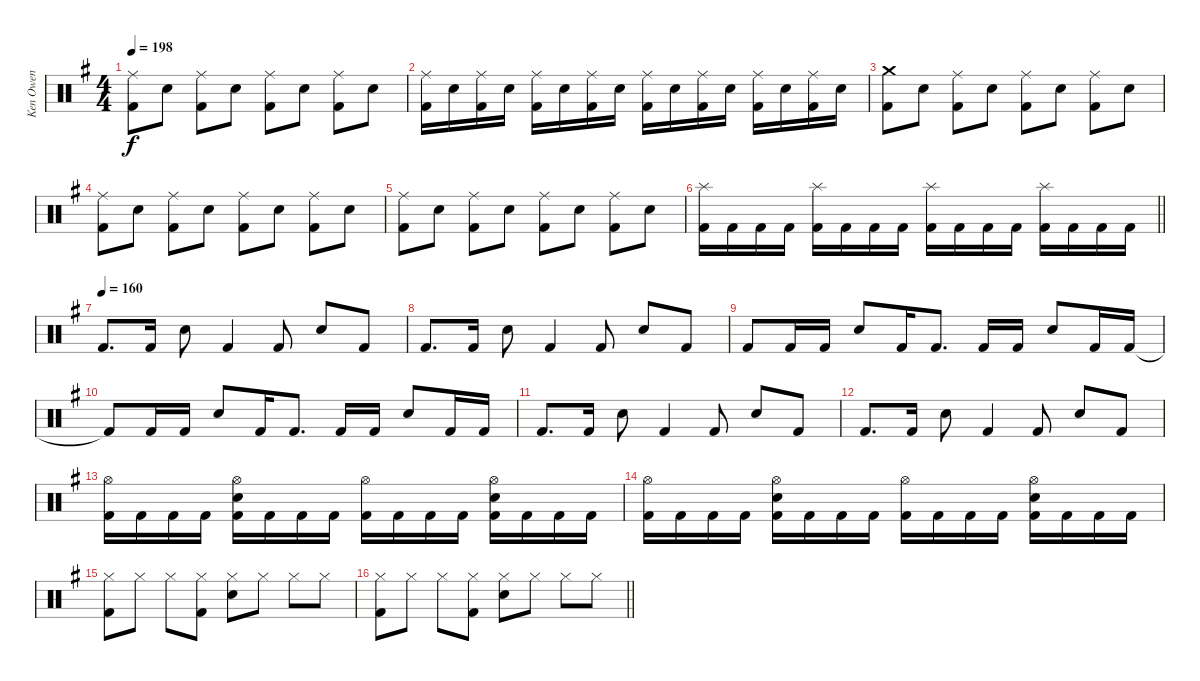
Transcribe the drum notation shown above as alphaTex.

\track ("Ken Owen" "Ken Owen") {instrument percussion}
\staff {score}
\articulation defaults
\ts (4 4)
\tempo 198
\clef neutral
\ks g
("Ride (middle)" "Kick (hit) 2").8{dy f} "Snare (hit) 2".8 ("Ride (middle)" "Kick (hit) 2").8 "Snare (hit) 2".8 ("Ride (middle)" "Kick (hit) 2").8 "Snare (hit) 2".8 ("Ride (middle)" "Kick (hit) 2").8 "Snare (hit) 2".8 |
("Ride (middle)" "Kick (hit) 2").16 "Snare (hit) 2".16 ("Ride (middle)" "Kick (hit) 2").16 "Snare (hit) 2".16 ("Ride (middle)" "Kick (hit) 2").16 "Snare (hit) 2".16 ("Ride (middle)" "Kick (hit) 2").16 "Snare (hit) 2".16 ("Ride (middle)" "Kick (hit) 2").16 "Snare (hit) 2".16 ("Ride (middle)" "Kick (hit) 2").16 "Snare (hit) 2".16 ("Ride (middle)" "Kick (hit) 2").16 "Snare (hit) 2".16 ("Ride (middle)" "Kick (hit) 2").16 "Snare (hit) 2".16 |
("Crash medium (hit)" "Kick (hit) 2").8 "Snare (hit) 2".8 ("Ride (middle)" "Kick (hit) 2").8 "Snare (hit) 2".8 ("Ride (middle)" "Kick (hit) 2").8 "Snare (hit) 2".8 ("Ride (middle)" "Kick (hit) 2").8 "Snare (hit) 2".8 |
("Ride (middle)" "Kick (hit) 2").8 "Snare (hit) 2".8 ("Ride (middle)" "Kick (hit) 2").8 "Snare (hit) 2".8 ("Ride (middle)" "Kick (hit) 2").8 "Snare (hit) 2".8 ("Ride (middle)" "Kick (hit) 2").8 "Snare (hit) 2".8 |
("Ride (middle)" "Kick (hit) 2").8 "Snare (hit) 2".8 ("Ride (middle)" "Kick (hit) 2").8 "Snare (hit) 2".8 ("Ride (middle)" "Kick (hit) 2").8 "Snare (hit) 2".8 ("Ride (middle)" "Kick (hit) 2").8 "Snare (hit) 2".8 |
\barLineRight lightlight
("Splash (hit)" "Kick (hit) 2").16 "Kick (hit) 2".16 "Kick (hit) 2".16 "Kick (hit) 2".16 ("Splash (hit)" "Kick (hit) 2").16 "Kick (hit) 2".16 "Kick (hit) 2".16 "Kick (hit) 2".16 ("Splash (hit)" "Kick (hit) 2").16 "Kick (hit) 2".16 "Kick (hit) 2".16 "Kick (hit) 2".16 ("Splash (hit)" "Kick (hit) 2").16 "Kick (hit) 2".16 "Kick (hit) 2".16 "Kick (hit) 2".16 |
\tempo (160)
"Kick (hit) 2".8{d} "Kick (hit) 2".16 "Snare (hit) 2".8 "Kick (hit) 2".4 "Kick (hit) 2".8 "Snare (hit) 2".8 "Kick (hit) 2".8 |
"Kick (hit) 2".8{d} "Kick (hit) 2".16 "Snare (hit) 2".8 "Kick (hit) 2".4 "Kick (hit) 2".8 "Snare (hit) 2".8 "Kick (hit) 2".8 |
"Kick (hit) 2".8 "Kick (hit) 2".16 "Kick (hit) 2".16 "Snare (hit) 2".8 "Kick (hit) 2".16 "Kick (hit) 2".8{d} "Kick (hit) 2".16 "Kick (hit) 2".16 "Snare (hit) 2".8 "Kick (hit) 2".16 "Kick (hit) 2".16 |
"Kick (hit) 2"{t}.8 "Kick (hit) 2".16 "Kick (hit) 2".16 "Snare (hit) 2".8 "Kick (hit) 2".16 "Kick (hit) 2".8{d} "Kick (hit) 2".16 "Kick (hit) 2".16 "Snare (hit) 2".8 "Kick (hit) 2".16 "Kick (hit) 2".16 |
"Kick (hit) 2".8{d} "Kick (hit) 2".16 "Snare (hit) 2".8 "Kick (hit) 2".4 "Kick (hit) 2".8 "Snare (hit) 2".8 "Kick (hit) 2".8 |
"Kick (hit) 2".8{d} "Kick (hit) 2".16 "Snare (hit) 2".8 "Kick (hit) 2".4 "Kick (hit) 2".8 "Snare (hit) 2".8 "Kick (hit) 2".8 |
("Hi-Hat (open)" "Kick (hit) 2").16 "Kick (hit) 2".16 "Kick (hit) 2".16 "Kick (hit) 2".16 ("Hi-Hat (open)" "Snare (hit) 2" "Kick (hit) 2").16 "Kick (hit) 2".16 "Kick (hit) 2".16 "Kick (hit) 2".16 ("Hi-Hat (open)" "Kick (hit) 2").16 "Kick (hit) 2".16 "Kick (hit) 2".16 "Kick (hit) 2".16 ("Hi-Hat (open)" "Snare (hit) 2" "Kick (hit) 2").16 "Kick (hit) 2".16 "Kick (hit) 2".16 "Kick (hit) 2".16 |
("Hi-Hat (open)" "Kick (hit) 2").16 "Kick (hit) 2".16 "Kick (hit) 2".16 "Kick (hit) 2".16 ("Hi-Hat (open)" "Snare (hit) 2" "Kick (hit) 2").16 "Kick (hit) 2".16 "Kick (hit) 2".16 "Kick (hit) 2".16 ("Hi-Hat (open)" "Kick (hit) 2").16 "Kick (hit) 2".16 "Kick (hit) 2".16 "Kick (hit) 2".16 ("Hi-Hat (open)" "Snare (hit) 2" "Kick (hit) 2").16 "Kick (hit) 2".16 "Kick (hit) 2".16 "Kick (hit) 2".16 |
("Hi-Hat (closed)" "Kick (hit) 2").8 "Hi-Hat (closed)".8 "Hi-Hat (closed)".8 ("Hi-Hat (closed)" "Kick (hit) 2").8 ("Hi-Hat (closed)" "Snare (hit) 2").8 "Hi-Hat (closed)".8 "Hi-Hat (closed)".8 "Hi-Hat (closed)".8 |
\barLineRight lightlight
("Hi-Hat (closed)" "Kick (hit) 2").8 "Hi-Hat (closed)".8 "Hi-Hat (closed)".8 ("Hi-Hat (closed)" "Kick (hit) 2").8 ("Hi-Hat (closed)" "Snare (hit) 2").8 "Hi-Hat (closed)".8 "Hi-Hat (closed)".8 "Hi-Hat (closed)".8
